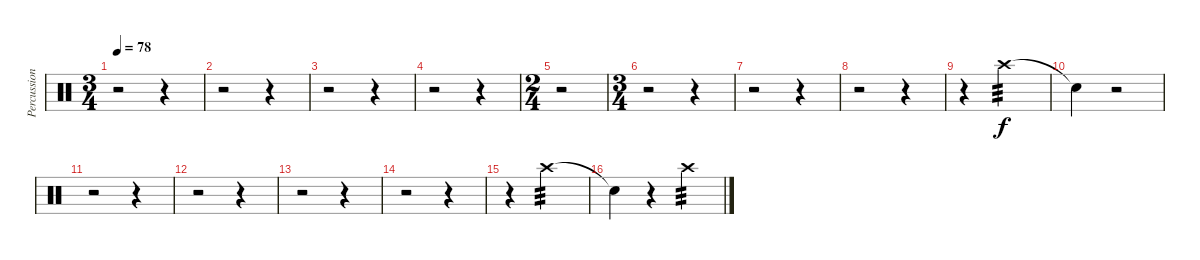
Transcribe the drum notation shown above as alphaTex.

\track ("Percussion" "Percussion") {instrument percussion}
\staff {score}
\articulation defaults
\ts (3 4)
\tempo 78
\clef neutral
\ks c
r.2{dy f} r.4 |
r.2 r.4 |
r.2 r.4 |
r.2 r.4 |
\ts (2 4)
r.2 |
\ts (3 4)
r.2 r.4 |
r.2 r.4 |
r.2 r.4 |
r.4 "Crash high (hit)".2{tp 3} |
"Snare (hit)"{t}.4 r.2 |
r.2 r.4 |
r.2 r.4 |
r.2 r.4 |
r.2 r.4 |
r.4 "Crash high (hit)".2{tp 3} |
"Snare (hit)"{t}.4 r.4 "Crash high (hit)".4{tp 3}
